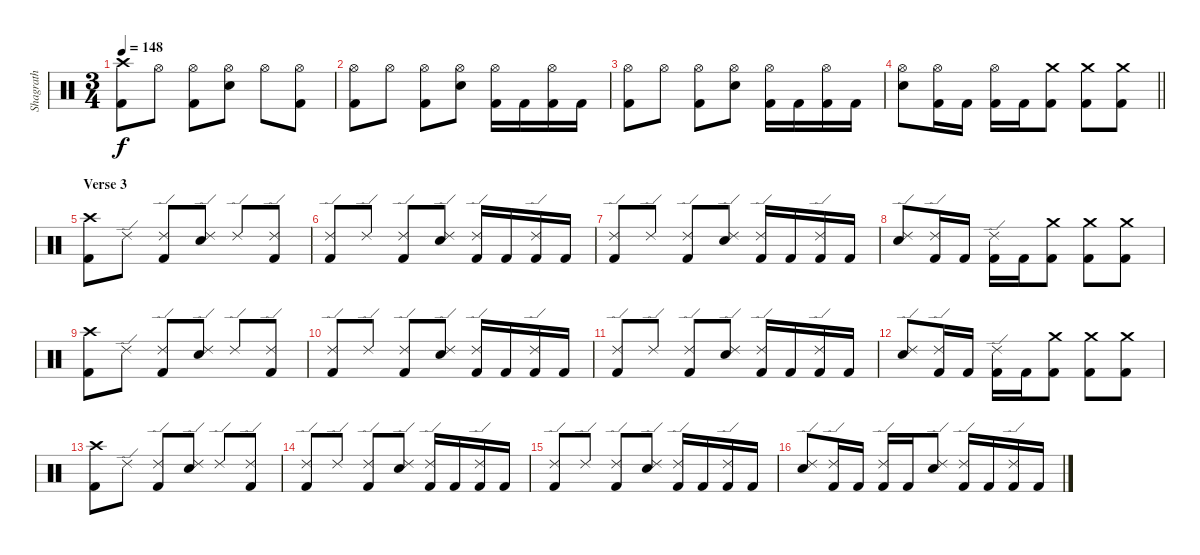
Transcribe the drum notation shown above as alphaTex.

\track ("Shagrath" "Shagrath") {instrument percussion}
\staff {score}
\articulation defaults
\ts (3 4)
\tempo 148
\clef neutral
\ks c
("Crash high (hit)" "Kick (hit) 2").8{dy f} "Hi-Hat (open)".8 ("Hi-Hat (open)" "Kick (hit) 2").8 ("Hi-Hat (open)" "Electric Snare (hit)").8 "Hi-Hat (open)".8 ("Hi-Hat (open)" "Kick (hit) 2").8 |
("Hi-Hat (open)" "Kick (hit) 2").8 "Hi-Hat (open)".8 ("Hi-Hat (open)" "Kick (hit) 2").8 ("Hi-Hat (open)" "Electric Snare (hit)").8 ("Hi-Hat (open)" "Kick (hit) 2").16 "Kick (hit) 2".16 ("Hi-Hat (open)" "Kick (hit) 2").16 "Kick (hit) 2".16 |
("Hi-Hat (open)" "Kick (hit) 2").8 "Hi-Hat (open)".8 ("Hi-Hat (open)" "Kick (hit) 2").8 ("Hi-Hat (open)" "Electric Snare (hit)").8 ("Hi-Hat (open)" "Kick (hit) 2").16 "Kick (hit) 2".16 ("Hi-Hat (open)" "Kick (hit) 2").16 "Kick (hit) 2".16 |
\barLineRight lightlight
("Hi-Hat (open)" "Electric Snare (hit)").8 ("Hi-Hat (open)" "Kick (hit) 2").16 "Kick (hit) 2".16 ("Hi-Hat (open)" "Kick (hit) 2").16 "Kick (hit) 2".16 ("Crash medium (hit)" "Kick (hit) 2").8 ("Crash medium (hit)" "Kick (hit) 2").8 ("Crash medium (hit)" "Kick (hit) 2").8 |
\section ("" "Verse 3")
("Crash high (hit)" "Kick (hit) 2").8 "Ride (edge) 2".8 ("Ride (edge) 2" "Kick (hit) 2").8 ("Ride (edge) 2" "Electric Snare (hit)").8 "Ride (edge) 2".8 ("Ride (edge) 2" "Kick (hit) 2").8 |
("Ride (edge) 2" "Kick (hit) 2").8 "Ride (edge) 2".8 ("Ride (edge) 2" "Kick (hit) 2").8 ("Ride (edge) 2" "Electric Snare (hit)").8 ("Ride (edge) 2" "Kick (hit) 2").16 "Kick (hit) 2".16 ("Ride (edge) 2" "Kick (hit) 2").16 "Kick (hit) 2".16 |
("Ride (edge) 2" "Kick (hit) 2").8 "Ride (edge) 2".8 ("Ride (edge) 2" "Kick (hit) 2").8 ("Ride (edge) 2" "Electric Snare (hit)").8 ("Ride (edge) 2" "Kick (hit) 2").16 "Kick (hit) 2".16 ("Ride (edge) 2" "Kick (hit) 2").16 "Kick (hit) 2".16 |
("Ride (edge) 2" "Electric Snare (hit)").8 ("Ride (edge) 2" "Kick (hit) 2").16 "Kick (hit) 2".16 ("Ride (edge) 2" "Kick (hit) 2").16 "Kick (hit) 2".16 ("Crash medium (hit)" "Kick (hit) 2").8 ("Crash medium (hit)" "Kick (hit) 2").8 ("Crash medium (hit)" "Kick (hit) 2").8 |
("Crash high (hit)" "Kick (hit) 2").8 "Ride (edge) 2".8 ("Ride (edge) 2" "Kick (hit) 2").8 ("Ride (edge) 2" "Electric Snare (hit)").8 "Ride (edge) 2".8 ("Ride (edge) 2" "Kick (hit) 2").8 |
("Ride (edge) 2" "Kick (hit) 2").8 "Ride (edge) 2".8 ("Ride (edge) 2" "Kick (hit) 2").8 ("Ride (edge) 2" "Electric Snare (hit)").8 ("Ride (edge) 2" "Kick (hit) 2").16 "Kick (hit) 2".16 ("Ride (edge) 2" "Kick (hit) 2").16 "Kick (hit) 2".16 |
("Ride (edge) 2" "Kick (hit) 2").8 "Ride (edge) 2".8 ("Ride (edge) 2" "Kick (hit) 2").8 ("Ride (edge) 2" "Electric Snare (hit)").8 ("Ride (edge) 2" "Kick (hit) 2").16 "Kick (hit) 2".16 ("Ride (edge) 2" "Kick (hit) 2").16 "Kick (hit) 2".16 |
("Ride (edge) 2" "Electric Snare (hit)").8 ("Ride (edge) 2" "Kick (hit) 2").16 "Kick (hit) 2".16 ("Ride (edge) 2" "Kick (hit) 2").16 "Kick (hit) 2".16 ("Crash medium (hit)" "Kick (hit) 2").8 ("Crash medium (hit)" "Kick (hit) 2").8 ("Crash medium (hit)" "Kick (hit) 2").8 |
("Crash high (hit)" "Kick (hit) 2").8 "Ride (edge) 2".8 ("Ride (edge) 2" "Kick (hit) 2").8 ("Ride (edge) 2" "Electric Snare (hit)").8 "Ride (edge) 2".8 ("Ride (edge) 2" "Kick (hit) 2").8 |
("Ride (edge) 2" "Kick (hit) 2").8 "Ride (edge) 2".8 ("Ride (edge) 2" "Kick (hit) 2").8 ("Ride (edge) 2" "Electric Snare (hit)").8 ("Ride (edge) 2" "Kick (hit) 2").16 "Kick (hit) 2".16 ("Ride (edge) 2" "Kick (hit) 2").16 "Kick (hit) 2".16 |
("Ride (edge) 2" "Kick (hit) 2").8 "Ride (edge) 2".8 ("Ride (edge) 2" "Kick (hit) 2").8 ("Ride (edge) 2" "Electric Snare (hit)").8 ("Ride (edge) 2" "Kick (hit) 2").16 "Kick (hit) 2".16 ("Ride (edge) 2" "Kick (hit) 2").16 "Kick (hit) 2".16 |
("Ride (edge) 2" "Electric Snare (hit)").8 ("Ride (edge) 2" "Kick (hit) 2").16 "Kick (hit) 2".16 ("Ride (edge) 2" "Kick (hit) 2").16 "Kick (hit) 2".16 ("Ride (edge) 2" "Electric Snare (hit)").8 ("Ride (edge) 2" "Kick (hit) 2").16 "Kick (hit) 2".16 ("Ride (edge) 2" "Kick (hit) 2").16 "Kick (hit) 2".16
